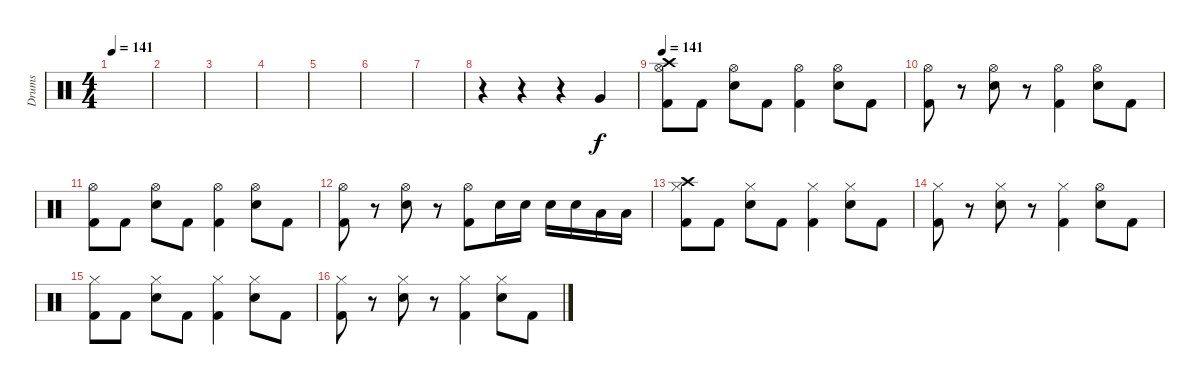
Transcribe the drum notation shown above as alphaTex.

\track ("Drums" "Drums") {instrument percussion}
\staff {score}
\articulation defaults
\ts (4 4)
\tempo 141
\tempo 134
\tempo 141
\clef neutral
\ks c
|
|
|
|
|
|
|
r.4 r.4 r.4 "Very Low Tom (hit)".4 |
\tempo 141
("Crash high (hit)" "Hi-Hat (open)" "Kick (hit) 2").8 "Kick (hit) 2".8 ("Hi-Hat (open)" "Electric Snare (hit)").8 "Kick (hit) 2".8 ("Hi-Hat (open)" "Kick (hit) 2").4 ("Hi-Hat (open)" "Electric Snare (hit)").8 "Kick (hit) 2".8 |
("Hi-Hat (open)" "Kick (hit) 2").8 r.8 ("Hi-Hat (open)" "Electric Snare (hit)").8 r.8 ("Hi-Hat (open)" "Kick (hit) 2").4 ("Hi-Hat (open)" "Electric Snare (hit)").8 "Kick (hit) 2".8 |
("Hi-Hat (open)" "Kick (hit) 2").8 "Kick (hit) 2".8 ("Hi-Hat (open)" "Electric Snare (hit)").8 "Kick (hit) 2".8 ("Hi-Hat (open)" "Kick (hit) 2").4 ("Hi-Hat (open)" "Electric Snare (hit)").8 "Kick (hit) 2".8 |
("Hi-Hat (open)" "Kick (hit) 2").8 r.8 ("Hi-Hat (open)" "Electric Snare (hit)").8 r.8 ("Hi-Hat (open)" "Kick (hit) 2").8 "Electric Snare (hit)".16 "Electric Snare (hit)".16 "Electric Snare (hit)".16 "Electric Snare (hit)".16 "Low Tom (hit)".16 "Low Tom (hit)".16 |
("Crash high (hit)" "Hi-Hat (closed)" "Kick (hit) 2").8 "Kick (hit) 2".8 ("Hi-Hat (closed)" "Electric Snare (hit)").8 "Kick (hit) 2".8 ("Hi-Hat (closed)" "Kick (hit) 2").4 ("Hi-Hat (closed)" "Electric Snare (hit)").8 "Kick (hit) 2".8 |
("Hi-Hat (closed)" "Kick (hit) 2").8 r.8 ("Hi-Hat (closed)" "Electric Snare (hit)").8 r.8 ("Hi-Hat (closed)" "Kick (hit) 2").4 ("Hi-Hat (open)" "Electric Snare (hit)").8 "Kick (hit) 2".8 |
("Hi-Hat (closed)" "Kick (hit) 2").8 "Kick (hit) 2".8 ("Hi-Hat (closed)" "Electric Snare (hit)").8 "Kick (hit) 2".8 ("Hi-Hat (closed)" "Kick (hit) 2").4 ("Hi-Hat (closed)" "Electric Snare (hit)").8 "Kick (hit) 2".8 |
("Hi-Hat (closed)" "Kick (hit) 2").8 r.8 ("Hi-Hat (closed)" "Electric Snare (hit)").8 r.8 ("Hi-Hat (closed)" "Kick (hit) 2").4 ("Hi-Hat (closed)" "Electric Snare (hit)").8 "Kick (hit) 2".8
